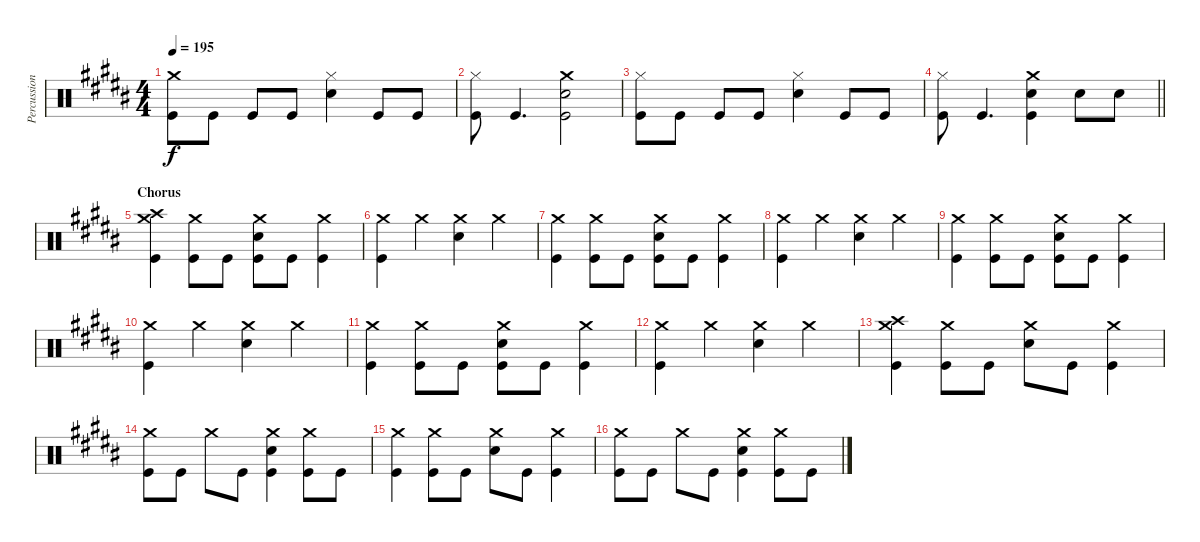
\track ("Percussion" "Percussion") {instrument percussion}
\staff {score}
\articulation defaults
\ts (4 4)
\tempo 195
\clef neutral
\ks b
("Crash medium (hit)" "Kick (hit)").8{dy f} "Kick (hit)".8 "Kick (hit)".8 "Kick (hit)".8 ("Hi-Hat (closed)" "Electric Snare (hit)").4 "Kick (hit)".8 "Kick (hit)".8 |
("Hi-Hat (closed)" "Kick (hit)").8 "Kick (hit)".4{d} ("Crash medium (hit)" "Electric Snare (hit)" "Kick (hit)").2 |
("Hi-Hat (closed)" "Kick (hit)").8 "Kick (hit)".8 "Kick (hit)".8 "Kick (hit)".8 ("Hi-Hat (closed)" "Electric Snare (hit)").4 "Kick (hit)".8 "Kick (hit)".8 |
\barLineRight lightlight
("Hi-Hat (closed)" "Kick (hit)").8 "Kick (hit)".4{d} ("Crash medium (hit)" "Electric Snare (hit)" "Kick (hit)").4 "Electric Snare (hit)".8 "Electric Snare (hit)".8 |
\section ("" "Chorus")
("Crash high (hit)" "Crash medium (hit)" "Kick (hit)").4 ("Crash medium (hit)" "Kick (hit)").8 "Kick (hit)".8 ("Crash medium (hit)" "Electric Snare (hit)" "Kick (hit)").8 "Kick (hit)".8 ("Crash medium (hit)" "Kick (hit)").4 |
("Crash medium (hit)" "Kick (hit)").4 "Crash medium (hit)".4 ("Crash medium (hit)" "Electric Snare (hit)").4 "Crash medium (hit)".4 |
("Crash medium (hit)" "Kick (hit)").4 ("Crash medium (hit)" "Kick (hit)").8 "Kick (hit)".8 ("Crash medium (hit)" "Electric Snare (hit)" "Kick (hit)").8 "Kick (hit)".8 ("Crash medium (hit)" "Kick (hit)").4 |
("Crash medium (hit)" "Kick (hit)").4 "Crash medium (hit)".4 ("Crash medium (hit)" "Electric Snare (hit)").4 "Crash medium (hit)".4 |
("Crash medium (hit)" "Kick (hit)").4 ("Crash medium (hit)" "Kick (hit)").8 "Kick (hit)".8 ("Crash medium (hit)" "Electric Snare (hit)" "Kick (hit)").8 "Kick (hit)".8 ("Crash medium (hit)" "Kick (hit)").4 |
("Crash medium (hit)" "Kick (hit)").4 "Crash medium (hit)".4 ("Crash medium (hit)" "Electric Snare (hit)").4 "Crash medium (hit)".4 |
("Crash medium (hit)" "Kick (hit)").4 ("Crash medium (hit)" "Kick (hit)").8 "Kick (hit)".8 ("Crash medium (hit)" "Electric Snare (hit)" "Kick (hit)").8 "Kick (hit)".8 ("Crash medium (hit)" "Kick (hit)").4 |
("Crash medium (hit)" "Kick (hit)").4 "Crash medium (hit)".4 ("Crash medium (hit)" "Electric Snare (hit)").4 "Crash medium (hit)".4 |
("Crash high (hit)" "Crash medium (hit)" "Kick (hit)").4 ("Crash medium (hit)" "Kick (hit)").8 "Kick (hit)".8 ("Crash medium (hit)" "Electric Snare (hit)").8 "Kick (hit)".8 ("Crash medium (hit)" "Kick (hit)").4 |
("Crash medium (hit)" "Kick (hit)").8 "Kick (hit)".8 "Crash medium (hit)".8 "Kick (hit)".8 ("Crash medium (hit)" "Electric Snare (hit)" "Kick (hit)").4 ("Crash medium (hit)" "Kick (hit)").8 "Kick (hit)".8 |
("Crash medium (hit)" "Kick (hit)").4 ("Crash medium (hit)" "Kick (hit)").8 "Kick (hit)".8 ("Crash medium (hit)" "Electric Snare (hit)").8 "Kick (hit)".8 ("Crash medium (hit)" "Kick (hit)").4 |
("Crash medium (hit)" "Kick (hit)").8 "Kick (hit)".8 "Crash medium (hit)".8 "Kick (hit)".8 ("Crash medium (hit)" "Electric Snare (hit)" "Kick (hit)").4 ("Crash medium (hit)" "Kick (hit)").8 "Kick (hit)".8
